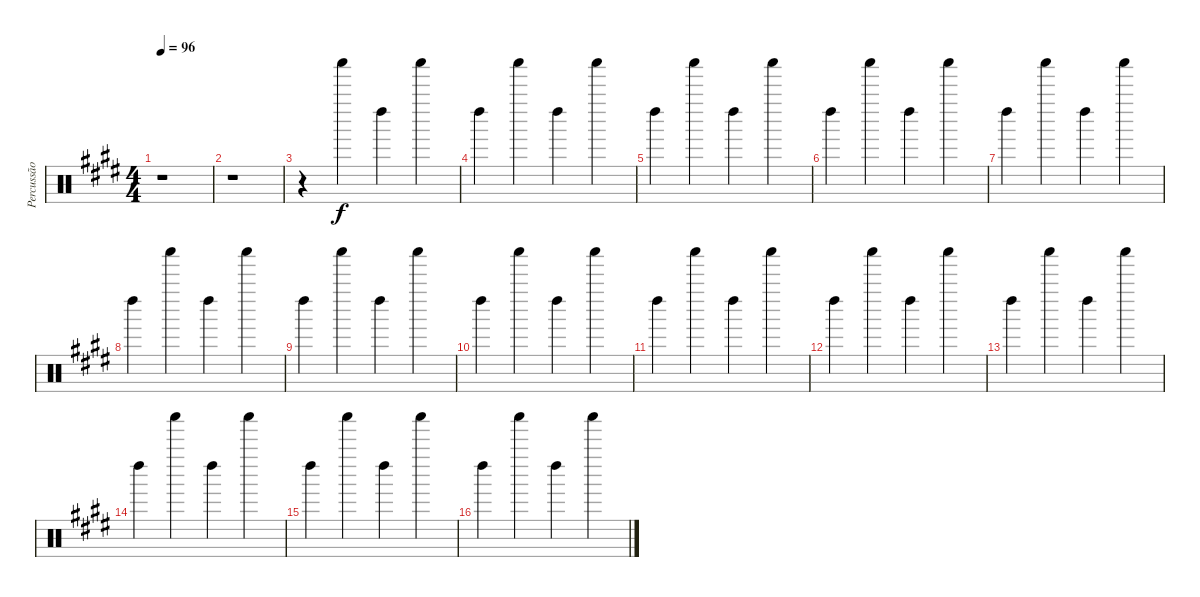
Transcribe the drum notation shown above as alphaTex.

\track ("Percussão" "Percussão") {instrument percussion}
\staff {score}
\articulation defaults
\ts (4 4)
\tempo 96
\clef neutral
\ks e
r.1{dy f} |
r.1 |
r.4 "Shaker (hit)".4 "Left Maraca (hit)".4 "Shaker (hit)".4 |
"Left Maraca (hit)".4 "Shaker (hit)".4 "Left Maraca (hit)".4 "Shaker (hit)".4 |
"Left Maraca (hit)".4 "Shaker (hit)".4 "Left Maraca (hit)".4 "Shaker (hit)".4 |
"Left Maraca (hit)".4 "Shaker (hit)".4 "Left Maraca (hit)".4 "Shaker (hit)".4 |
"Left Maraca (hit)".4 "Shaker (hit)".4 "Left Maraca (hit)".4 "Shaker (hit)".4 |
"Left Maraca (hit)".4 "Shaker (hit)".4 "Left Maraca (hit)".4 "Shaker (hit)".4 |
"Left Maraca (hit)".4 "Shaker (hit)".4 "Left Maraca (hit)".4 "Shaker (hit)".4 |
"Left Maraca (hit)".4 "Shaker (hit)".4 "Left Maraca (hit)".4 "Shaker (hit)".4 |
"Left Maraca (hit)".4 "Shaker (hit)".4 "Left Maraca (hit)".4 "Shaker (hit)".4 |
"Left Maraca (hit)".4 "Shaker (hit)".4 "Left Maraca (hit)".4 "Shaker (hit)".4 |
"Left Maraca (hit)".4 "Shaker (hit)".4 "Left Maraca (hit)".4 "Shaker (hit)".4 |
"Left Maraca (hit)".4 "Shaker (hit)".4 "Left Maraca (hit)".4 "Shaker (hit)".4 |
"Left Maraca (hit)".4 "Shaker (hit)".4 "Left Maraca (hit)".4 "Shaker (hit)".4 |
"Left Maraca (hit)".4 "Shaker (hit)".4 "Left Maraca (hit)".4 "Shaker (hit)".4
